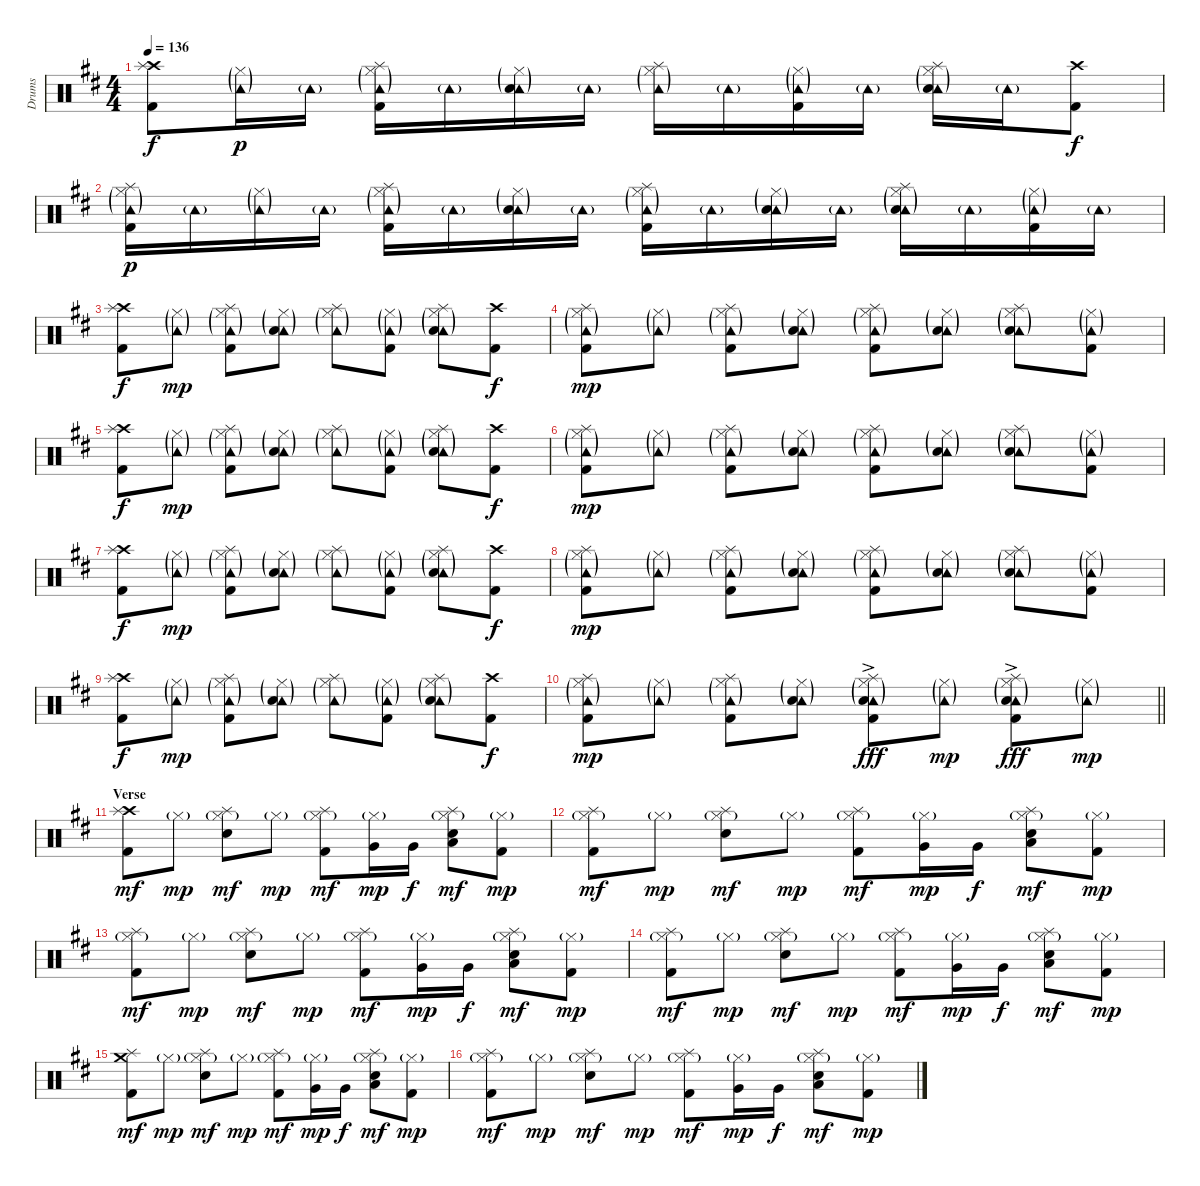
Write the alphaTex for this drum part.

\track ("Drums" "Drums") {instrument percussion}
\staff {score}
\articulation defaults
\ts (4 4)
\tempo 136
\clef neutral
\ks d
("Crash high (hit)" "Splash (hit)" "Kick (hit) 2").8{dy f} ("Hi-Hat (closed)"{g} "Tambourine (hit)"{g}).16{dy p} "Tambourine (hit)"{g}.16 ("Hi-Hat (closed)"{g} "Splash (hit)" "Tambourine (hit)"{g} "Kick (hit) 2").16 "Tambourine (hit)"{g}.16 ("Hi-Hat (closed)"{g} "Tambourine (hit)"{g} "Snare (hit) 2").16 "Tambourine (hit)"{g}.16 ("Hi-Hat (closed)"{g} "Splash (hit)" "Tambourine (hit)"{g}).16 "Tambourine (hit)"{g}.16 ("Hi-Hat (closed)"{g} "Tambourine (hit)"{g} "Kick (hit) 2").16 "Tambourine (hit)"{g}.16 ("Hi-Hat (closed)"{g} "Splash (hit)" "Tambourine (hit)"{g} "Snare (hit) 2").16 "Tambourine (hit)"{g}.16 ("Crash high (hit)" "Kick (hit) 2").8{dy f} |
("Hi-Hat (closed)"{g} "Splash (hit)" "Tambourine (hit)"{g} "Kick (hit) 2").16{dy p} "Tambourine (hit)"{g}.16 ("Hi-Hat (closed)"{g} "Tambourine (hit)"{g}).16 "Tambourine (hit)"{g}.16 ("Hi-Hat (closed)"{g} "Splash (hit)" "Tambourine (hit)"{g} "Kick (hit) 2").16 "Tambourine (hit)"{g}.16 ("Hi-Hat (closed)"{g} "Tambourine (hit)"{g} "Snare (hit) 2").16 "Tambourine (hit)"{g}.16 ("Hi-Hat (closed)"{g} "Splash (hit)" "Tambourine (hit)"{g} "Kick (hit) 2").16 "Tambourine (hit)"{g}.16 ("Hi-Hat (closed)"{g} "Tambourine (hit)"{g} "Snare (hit) 2").16 "Tambourine (hit)"{g}.16 ("Hi-Hat (closed)"{g} "Splash (hit)" "Tambourine (hit)"{g} "Snare (hit) 2").16 "Tambourine (hit)"{g}.16 ("Hi-Hat (closed)"{g} "Tambourine (hit)"{g} "Kick (hit) 2").16 "Tambourine (hit)"{g}.16 |
("Crash high (hit)" "Splash (hit)" "Kick (hit) 2").8{dy f} ("Hi-Hat (closed)"{g} "Tambourine (hit)"{g}).8{dy mp} ("Hi-Hat (closed)"{g} "Splash (hit)" "Tambourine (hit)"{g} "Kick (hit) 2").8 ("Hi-Hat (closed)"{g} "Tambourine (hit)"{g} "Snare (hit) 2").8 ("Hi-Hat (closed)"{g} "Splash (hit)" "Tambourine (hit)"{g}).8 ("Hi-Hat (closed)"{g} "Tambourine (hit)"{g} "Kick (hit) 2").8 ("Hi-Hat (closed)"{g} "Splash (hit)" "Tambourine (hit)"{g} "Snare (hit) 2").8 ("Crash high (hit)" "Kick (hit) 2").8{dy f} |
("Hi-Hat (closed)"{g} "Splash (hit)" "Tambourine (hit)"{g} "Kick (hit) 2").8{dy mp} ("Hi-Hat (closed)"{g} "Tambourine (hit)"{g}).8 ("Hi-Hat (closed)"{g} "Splash (hit)" "Tambourine (hit)"{g} "Kick (hit) 2").8 ("Hi-Hat (closed)"{g} "Tambourine (hit)"{g} "Snare (hit) 2").8 ("Hi-Hat (closed)"{g} "Splash (hit)" "Tambourine (hit)"{g} "Kick (hit) 2").8 ("Hi-Hat (closed)"{g} "Tambourine (hit)"{g} "Snare (hit) 2").8 ("Hi-Hat (closed)"{g} "Splash (hit)" "Tambourine (hit)"{g} "Snare (hit) 2").8 ("Hi-Hat (closed)"{g} "Tambourine (hit)"{g} "Kick (hit) 2").8 |
("Crash high (hit)" "Splash (hit)" "Kick (hit) 2").8{dy f} ("Hi-Hat (closed)"{g} "Tambourine (hit)"{g}).8{dy mp} ("Hi-Hat (closed)"{g} "Splash (hit)" "Tambourine (hit)"{g} "Kick (hit) 2").8 ("Hi-Hat (closed)"{g} "Tambourine (hit)"{g} "Snare (hit) 2").8 ("Hi-Hat (closed)"{g} "Splash (hit)" "Tambourine (hit)"{g}).8 ("Hi-Hat (closed)"{g} "Tambourine (hit)"{g} "Kick (hit) 2").8 ("Hi-Hat (closed)"{g} "Splash (hit)" "Tambourine (hit)"{g} "Snare (hit) 2").8 ("Crash high (hit)" "Kick (hit) 2").8{dy f} |
("Hi-Hat (closed)"{g} "Splash (hit)" "Tambourine (hit)"{g} "Kick (hit) 2").8{dy mp} ("Hi-Hat (closed)"{g} "Tambourine (hit)"{g}).8 ("Hi-Hat (closed)"{g} "Splash (hit)" "Tambourine (hit)"{g} "Kick (hit) 2").8 ("Hi-Hat (closed)"{g} "Tambourine (hit)"{g} "Snare (hit) 2").8 ("Hi-Hat (closed)"{g} "Splash (hit)" "Tambourine (hit)"{g} "Kick (hit) 2").8 ("Hi-Hat (closed)"{g} "Tambourine (hit)"{g} "Snare (hit) 2").8 ("Hi-Hat (closed)"{g} "Splash (hit)" "Tambourine (hit)"{g} "Snare (hit) 2").8 ("Hi-Hat (closed)"{g} "Tambourine (hit)"{g} "Kick (hit) 2").8 |
("Crash high (hit)" "Splash (hit)" "Kick (hit) 2").8{dy f} ("Hi-Hat (closed)"{g} "Tambourine (hit)"{g}).8{dy mp} ("Hi-Hat (closed)"{g} "Splash (hit)" "Tambourine (hit)"{g} "Kick (hit) 2").8 ("Hi-Hat (closed)"{g} "Tambourine (hit)"{g} "Snare (hit) 2").8 ("Hi-Hat (closed)"{g} "Splash (hit)" "Tambourine (hit)"{g}).8 ("Hi-Hat (closed)"{g} "Tambourine (hit)"{g} "Kick (hit) 2").8 ("Hi-Hat (closed)"{g} "Splash (hit)" "Tambourine (hit)"{g} "Snare (hit) 2").8 ("Crash high (hit)" "Kick (hit) 2").8{dy f} |
("Hi-Hat (closed)"{g} "Splash (hit)" "Tambourine (hit)"{g} "Kick (hit) 2").8{dy mp} ("Hi-Hat (closed)"{g} "Tambourine (hit)"{g}).8 ("Hi-Hat (closed)"{g} "Splash (hit)" "Tambourine (hit)"{g} "Kick (hit) 2").8 ("Hi-Hat (closed)"{g} "Tambourine (hit)"{g} "Snare (hit) 2").8 ("Hi-Hat (closed)"{g} "Splash (hit)" "Tambourine (hit)"{g} "Kick (hit) 2").8 ("Hi-Hat (closed)"{g} "Tambourine (hit)"{g} "Snare (hit) 2").8 ("Hi-Hat (closed)"{g} "Splash (hit)" "Tambourine (hit)"{g} "Snare (hit) 2").8 ("Hi-Hat (closed)"{g} "Tambourine (hit)"{g} "Kick (hit) 2").8 |
("Crash high (hit)" "Splash (hit)" "Kick (hit) 2").8{dy f} ("Hi-Hat (closed)"{g} "Tambourine (hit)"{g}).8{dy mp} ("Hi-Hat (closed)"{g} "Splash (hit)" "Tambourine (hit)"{g} "Kick (hit) 2").8 ("Hi-Hat (closed)"{g} "Tambourine (hit)"{g} "Snare (hit) 2").8 ("Hi-Hat (closed)"{g} "Splash (hit)" "Tambourine (hit)"{g}).8 ("Hi-Hat (closed)"{g} "Tambourine (hit)"{g} "Kick (hit) 2").8 ("Hi-Hat (closed)"{g} "Splash (hit)" "Tambourine (hit)"{g} "Snare (hit) 2").8 ("Crash high (hit)" "Kick (hit) 2").8{dy f} |
\barLineRight lightlight
("Hi-Hat (closed)"{g} "Splash (hit)" "Tambourine (hit)"{g} "Kick (hit) 2").8{dy mp} ("Hi-Hat (closed)"{g} "Tambourine (hit)"{g}).8 ("Hi-Hat (closed)"{g} "Splash (hit)" "Tambourine (hit)"{g} "Kick (hit) 2").8 ("Hi-Hat (closed)"{g} "Tambourine (hit)"{g} "Snare (hit) 2").8 ("Hi-Hat (closed)"{g} "Splash (hit)" "Tambourine (hit)"{g} "Snare (hit) 2"{ac} "Kick (hit) 2").8{dy fff} ("Hi-Hat (closed)"{g} "Tambourine (hit)"{g}).8{dy mp} ("Hi-Hat (closed)"{g} "Splash (hit)" "Tambourine (hit)"{g} "Snare (hit) 2"{ac} "Kick (hit) 2").8{dy fff} ("Hi-Hat (closed)"{g} "Tambourine (hit)"{g}).8{dy mp} |
\section ("" "Verse")
("Crash high (hit)" "Splash (hit)" "Kick (hit) 2").8{dy mf} "Hi-Hat (closed)"{g}.8{dy mp} ("Hi-Hat (closed)"{g} "Splash (hit)" "Snare (hit) 2").8{dy mf} "Hi-Hat (closed)"{g}.8{dy mp} ("Hi-Hat (closed)"{g} "Splash (hit)" "Kick (hit) 2").8{dy mf} ("Hi-Hat (closed)"{g} "Very Low Tom (hit)").16{dy mp} "Very Low Tom (hit)".16{dy f} ("Hi-Hat (closed)"{g} "Splash (hit)" "Low Floor Tom (hit)" "Snare (hit) 2").8{dy mf} ("Hi-Hat (closed)"{g} "Kick (hit) 2").8{dy mp} |
("Hi-Hat (closed)"{g} "Splash (hit)" "Kick (hit) 2").8{dy mf} "Hi-Hat (closed)"{g}.8{dy mp} ("Hi-Hat (closed)"{g} "Splash (hit)" "Snare (hit) 2").8{dy mf} "Hi-Hat (closed)"{g}.8{dy mp} ("Hi-Hat (closed)"{g} "Splash (hit)" "Kick (hit) 2").8{dy mf} ("Hi-Hat (closed)"{g} "Very Low Tom (hit)").16{dy mp} "Very Low Tom (hit)".16{dy f} ("Hi-Hat (closed)"{g} "Splash (hit)" "Low Floor Tom (hit)" "Snare (hit) 2").8{dy mf} ("Hi-Hat (closed)"{g} "Kick (hit) 2").8{dy mp} |
("Hi-Hat (closed)"{g} "Splash (hit)" "Kick (hit) 2").8{dy mf} "Hi-Hat (closed)"{g}.8{dy mp} ("Hi-Hat (closed)"{g} "Splash (hit)" "Snare (hit) 2").8{dy mf} "Hi-Hat (closed)"{g}.8{dy mp} ("Hi-Hat (closed)"{g} "Splash (hit)" "Kick (hit) 2").8{dy mf} ("Hi-Hat (closed)"{g} "Very Low Tom (hit)").16{dy mp} "Very Low Tom (hit)".16{dy f} ("Hi-Hat (closed)"{g} "Splash (hit)" "Low Floor Tom (hit)" "Snare (hit) 2").8{dy mf} ("Hi-Hat (closed)"{g} "Kick (hit) 2").8{dy mp} |
("Hi-Hat (closed)"{g} "Splash (hit)" "Kick (hit) 2").8{dy mf} "Hi-Hat (closed)"{g}.8{dy mp} ("Hi-Hat (closed)"{g} "Splash (hit)" "Snare (hit) 2").8{dy mf} "Hi-Hat (closed)"{g}.8{dy mp} ("Hi-Hat (closed)"{g} "Splash (hit)" "Kick (hit) 2").8{dy mf} ("Hi-Hat (closed)"{g} "Very Low Tom (hit)").16{dy mp} "Very Low Tom (hit)".16{dy f} ("Hi-Hat (closed)"{g} "Splash (hit)" "Low Floor Tom (hit)" "Snare (hit) 2").8{dy mf} ("Hi-Hat (closed)"{g} "Kick (hit) 2").8{dy mp} |
("Crash medium (hit)" "Splash (hit)" "Kick (hit) 2").8{dy mf} "Hi-Hat (closed)"{g}.8{dy mp} ("Hi-Hat (closed)"{g} "Splash (hit)" "Snare (hit) 2").8{dy mf} "Hi-Hat (closed)"{g}.8{dy mp} ("Hi-Hat (closed)"{g} "Splash (hit)" "Kick (hit) 2").8{dy mf} ("Hi-Hat (closed)"{g} "Very Low Tom (hit)").16{dy mp} "Very Low Tom (hit)".16{dy f} ("Hi-Hat (closed)"{g} "Splash (hit)" "Low Floor Tom (hit)" "Snare (hit) 2").8{dy mf} ("Hi-Hat (closed)"{g} "Kick (hit) 2").8{dy mp} |
("Hi-Hat (closed)"{g} "Splash (hit)" "Kick (hit) 2").8{dy mf} "Hi-Hat (closed)"{g}.8{dy mp} ("Hi-Hat (closed)"{g} "Splash (hit)" "Snare (hit) 2").8{dy mf} "Hi-Hat (closed)"{g}.8{dy mp} ("Hi-Hat (closed)"{g} "Splash (hit)" "Kick (hit) 2").8{dy mf} ("Hi-Hat (closed)"{g} "Very Low Tom (hit)").16{dy mp} "Very Low Tom (hit)".16{dy f} ("Hi-Hat (closed)"{g} "Splash (hit)" "Low Floor Tom (hit)" "Snare (hit) 2").8{dy mf} ("Hi-Hat (closed)"{g} "Kick (hit) 2").8{dy mp}
